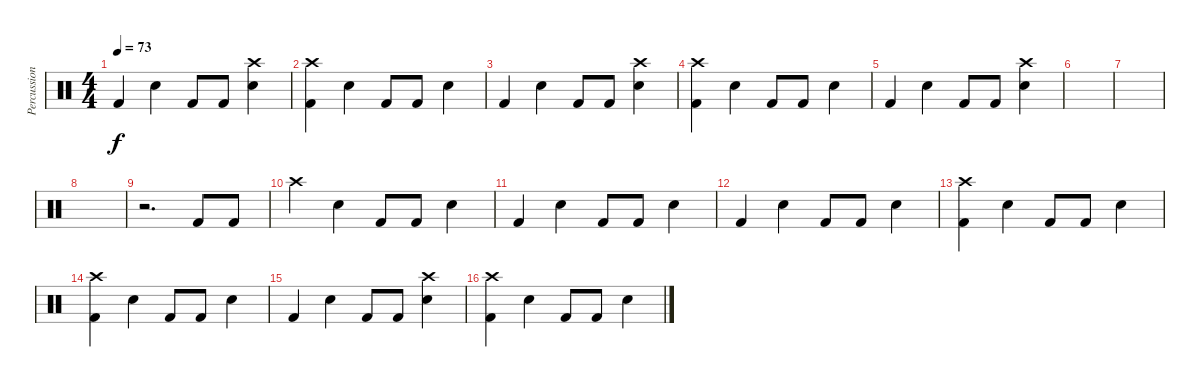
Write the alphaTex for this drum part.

\track ("Percussion" "Percussion") {instrument percussion}
\staff {score}
\articulation defaults
\ts (4 4)
\tempo 73
\clef neutral
\ks c "Kick (hit) 2".4{dy f} "Snare (hit) 2".4 "Kick (hit) 2".8 "Kick (hit) 2".8
("Snare (hit) 2" "Crash high (hit)").4 |
("Kick (hit) 2" "Crash high (hit)").4 "Snare (hit) 2".4 "Kick (hit) 2".8 "Kick (hit) 2".8 "Snare (hit) 2".4 |
"Kick (hit) 2".4 "Snare (hit) 2".4 "Kick (hit) 2".8 "Kick (hit) 2".8 ("Snare (hit) 2" "Crash high (hit)").4 |
("Kick (hit) 2" "Crash high (hit)").4 "Snare (hit) 2".4 "Kick (hit) 2".8 "Kick (hit) 2".8 "Snare (hit) 2".4 |
"Kick (hit) 2".4 "Snare (hit) 2".4 "Kick (hit) 2".8 "Kick (hit) 2".8 ("Snare (hit) 2" "Crash high (hit)").4 |
|
|
|
r.2{d} "Kick (hit) 2".8 "Kick (hit) 2".8 |
"Crash high (hit)".4 "Snare (hit) 2".4 "Kick (hit) 2".8 "Kick (hit) 2".8 "Snare (hit) 2".4 |
"Kick (hit) 2".4 "Snare (hit) 2".4 "Kick (hit) 2".8 "Kick (hit) 2".8 "Snare (hit) 2".4 |
"Kick (hit) 2".4 "Snare (hit) 2".4 "Kick (hit) 2".8 "Kick (hit) 2".8 "Snare (hit) 2".4 |
("Kick (hit) 2" "Crash high (hit)").4 "Snare (hit) 2".4 "Kick (hit) 2".8 "Kick (hit) 2".8 "Snare (hit) 2".4 |
("Kick (hit) 2" "Crash high (hit)").4 "Snare (hit) 2".4 "Kick (hit) 2".8 "Kick (hit) 2".8 "Snare (hit) 2".4 |
"Kick (hit) 2".4 "Snare (hit) 2".4 "Kick (hit) 2".8 "Kick (hit) 2".8 ("Snare (hit) 2" "Crash high (hit)").4 |
("Kick (hit) 2" "Crash high (hit)").4 "Snare (hit) 2".4 "Kick (hit) 2".8 "Kick (hit) 2".8 "Snare (hit) 2".4
